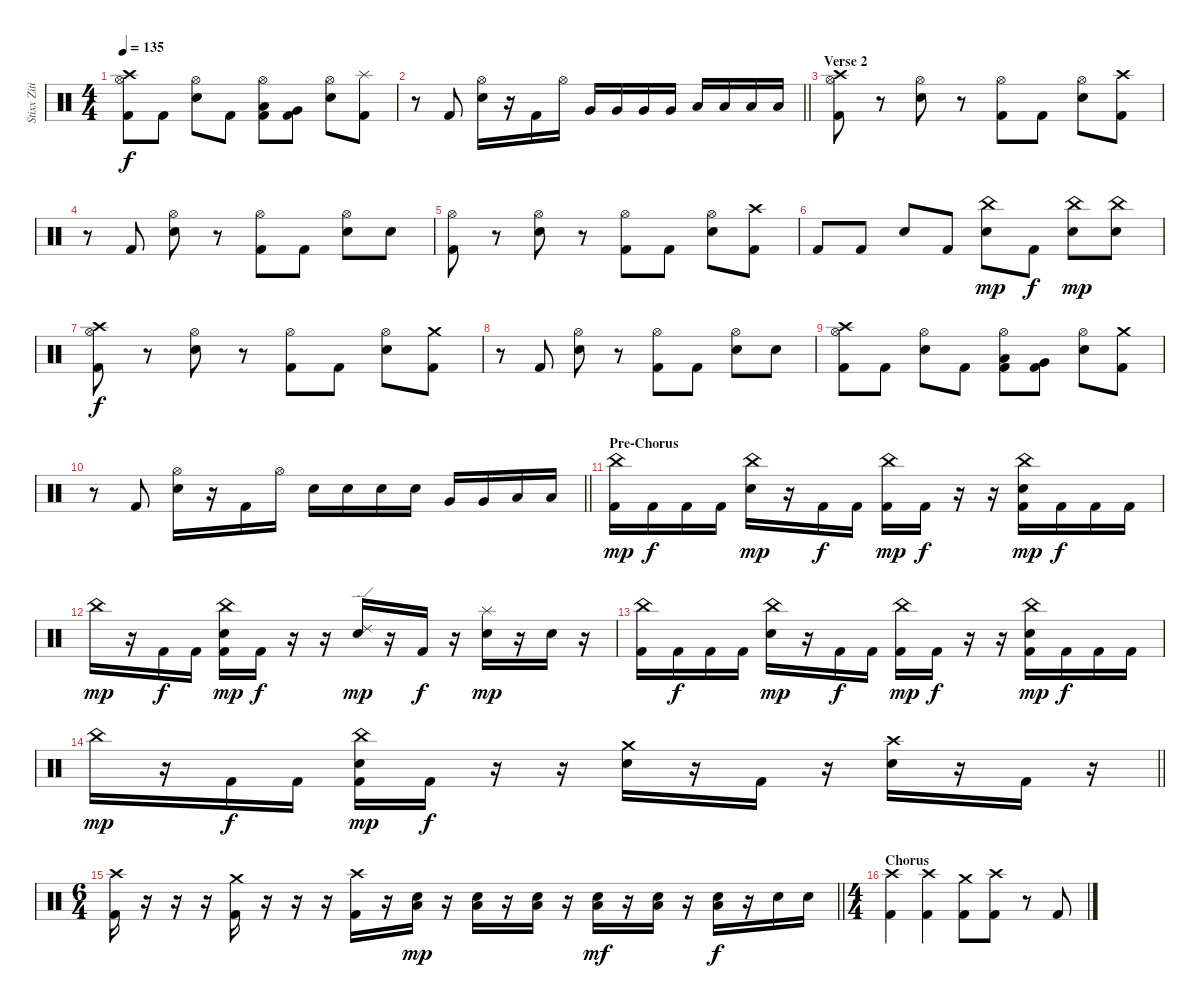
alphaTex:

\track ("Stixx Zitinya Drums" "Stixx Ziti") {instrument percussion}
\staff {score}
\articulation defaults
\ts (4 4)
\tempo 135
\clef neutral
\ks c
("Crash high (hit)" "Hi-Hat (open)" "Kick (hit) 2").8{dy f} "Kick (hit) 2".8 ("Hi-Hat (open)" "Snare (hit) 2").8 "Kick (hit) 2".8 ("Hi-Hat (open)" "Low Tom (hit)" "Kick (hit) 2").8 ("Very Low Tom (hit)" "Kick (hit) 2").8 ("Hi-Hat (open)" "Snare (hit) 2").8 ("Splash (hit)" "Kick (hit) 2").8 |
\barLineRight lightlight
r.8 "Kick (hit) 2".8 ("Hi-Hat (open)" "Snare (hit) 2").16 r.16 "Kick (hit) 2".16 "Hi-Hat (open)".16 "Very Low Tom (hit)".16 "Very Low Tom (hit)".16 "Very Low Tom (hit)".16 "Very Low Tom (hit)".16 "Low Floor Tom (hit)".16 "Low Floor Tom (hit)".16 "Low Floor Tom (hit)".16 "Low Floor Tom (hit)".16 |
\section ("" "Verse 2")
("Crash high (hit)" "Hi-Hat (open)" "Kick (hit) 2").8 r.8 ("Hi-Hat (open)" "Snare (hit) 2").8 r.8 ("Hi-Hat (open)" "Kick (hit) 2").8 "Kick (hit) 2".8 ("Hi-Hat (open)" "Snare (hit) 2").8 ("Crash high (hit)" "Kick (hit) 2").8 |
r.8 "Kick (hit) 2".8 ("Hi-Hat (open)" "Snare (hit) 2").8 r.8 ("Hi-Hat (open)" "Kick (hit) 2").8 "Kick (hit) 2".8 ("Hi-Hat (open)" "Snare (hit) 2").8 "Snare (hit) 2".8 |
("Hi-Hat (open)" "Kick (hit) 2").8 r.8 ("Hi-Hat (open)" "Snare (hit) 2").8 r.8 ("Hi-Hat (open)" "Kick (hit) 2").8 "Kick (hit) 2".8 ("Hi-Hat (open)" "Snare (hit) 2").8 ("Crash high (hit)" "Kick (hit) 2").8 |
"Kick (hit) 2".8 "Kick (hit) 2".8 "Snare (hit) 2".8 "Kick (hit) 2".8 ("China (hit)" "Snare (hit) 2").8{dy mp} "Kick (hit) 2".8{dy f} ("China (hit)" "Snare (hit) 2").8{dy mp} ("China (hit)" "Snare (hit) 2").8 |
("Crash high (hit)" "Hi-Hat (open)" "Kick (hit) 2").8{dy f} r.8 ("Hi-Hat (open)" "Snare (hit) 2").8 r.8 ("Hi-Hat (open)" "Kick (hit) 2").8 "Kick (hit) 2".8 ("Hi-Hat (open)" "Snare (hit) 2").8 ("Crash medium (hit)" "Kick (hit) 2").8 |
r.8 "Kick (hit) 2".8 ("Hi-Hat (open)" "Snare (hit) 2").8 r.8 ("Hi-Hat (open)" "Kick (hit) 2").8 "Kick (hit) 2".8 ("Hi-Hat (open)" "Snare (hit) 2").8 "Snare (hit) 2".8 |
("Crash high (hit)" "Hi-Hat (open)" "Kick (hit) 2").8 "Kick (hit) 2".8 ("Hi-Hat (open)" "Snare (hit) 2").8 "Kick (hit) 2".8 ("Hi-Hat (open)" "Low Tom (hit)" "Kick (hit) 2").8 ("Very Low Tom (hit)" "Kick (hit) 2").8 ("Hi-Hat (open)" "Snare (hit) 2").8 ("Crash medium (hit)" "Kick (hit) 2").8 |
\barLineRight lightlight
r.8 "Kick (hit) 2".8 ("Hi-Hat (open)" "Snare (hit) 2").16 r.16 "Kick (hit) 2".16 "Hi-Hat (open)".16 "Snare (hit) 2".16 "Snare (hit) 2".16 "Snare (hit) 2".16 "Snare (hit) 2".16 "Very Low Tom (hit)".16 "Very Low Tom (hit)".16 "Low Floor Tom (hit)".16 "Low Floor Tom (hit)".16 |
\section ("" "Pre-Chorus")
("China (hit)" "Kick (hit) 2").16{dy mp} "Kick (hit) 2".16{dy f} "Kick (hit) 2".16 "Kick (hit) 2".16 ("China (hit)" "Snare (hit) 2").16{dy mp} r.16 "Kick (hit) 2".16{dy f} "Kick (hit) 2".16 ("China (hit)" "Kick (hit) 2").16{dy mp} "Kick (hit) 2".16{dy f} r.16 r.16 ("China (hit)" "Snare (hit) 2" "Kick (hit) 2").16{dy mp} "Kick (hit) 2".16{dy f} "Kick (hit) 2".16 "Kick (hit) 2".16 |
"China (hit)".16{dy mp} r.16 "Kick (hit) 2".16{dy f} "Kick (hit) 2".16 ("China (hit)" "Snare (hit) 2" "Kick (hit) 2").16{dy mp} "Kick (hit) 2".16{dy f} r.16 r.16 ("Ride (edge) 2" "Snare (hit) 2").16{dy mp} r.16 "Kick (hit) 2".16{dy f} r.16 ("Splash (hit)" "Snare (hit) 2").16{dy mp} r.16 "Snare (hit) 2".16 r.16 |
("China (hit)" "Kick (hit) 2").16 "Kick (hit) 2".16{dy f} "Kick (hit) 2".16 "Kick (hit) 2".16 ("China (hit)" "Snare (hit) 2").16{dy mp} r.16 "Kick (hit) 2".16{dy f} "Kick (hit) 2".16 ("China (hit)" "Kick (hit) 2").16{dy mp} "Kick (hit) 2".16{dy f} r.16 r.16 ("China (hit)" "Snare (hit) 2" "Kick (hit) 2").16{dy mp} "Kick (hit) 2".16{dy f} "Kick (hit) 2".16 "Kick (hit) 2".16 |
\barLineRight lightlight "China (hit)".16{dy mp}
r.16 "Kick (hit) 2".16{dy f} "Kick (hit) 2".16 ("China (hit)" "Snare (hit) 2" "Kick (hit) 2").16{dy mp} "Kick (hit) 2".16{dy f} r.16 r.16 ("Crash medium (hit)" "Snare (hit) 2").16 r.16 "Kick (hit) 2".16 r.16 ("Crash high (hit)" "Snare (hit) 2").16 r.16 "Kick (hit) 2".16 r.16 |
\ts (6 4)
\barLineRight lightlight
("Crash high (hit)" "Kick (hit) 2").16 r.16 r.16 r.16 ("Crash medium (hit)" "Kick (hit) 2").16 r.16 r.16 r.16 ("Crash high (hit)" "Kick (hit) 2").16 r.16 ("Low Floor Tom (hit)" "Snare (hit) 2").16{dy mp} r.16 ("Low Floor Tom (hit)" "Snare (hit) 2").16 r.16 ("Low Floor Tom (hit)" "Snare (hit) 2").16 r.16 ("Low Floor Tom (hit)" "Snare (hit) 2").16{dy mf} r.16 ("Low Floor Tom (hit)" "Snare (hit) 2").16 r.16 ("Low Floor Tom (hit)" "Snare (hit) 2").16{dy f} r.16 "Snare (hit) 2".16 "Snare (hit) 2".16 |
\ts (4 4)
\section ("" "Chorus")
("Crash high (hit)" "Kick (hit) 2").4 ("Crash high (hit)" "Kick (hit) 2").4 ("Crash medium (hit)" "Kick (hit) 2").8 ("Crash high (hit)" "Kick (hit) 2").8 r.8 "Kick (hit) 2".8
